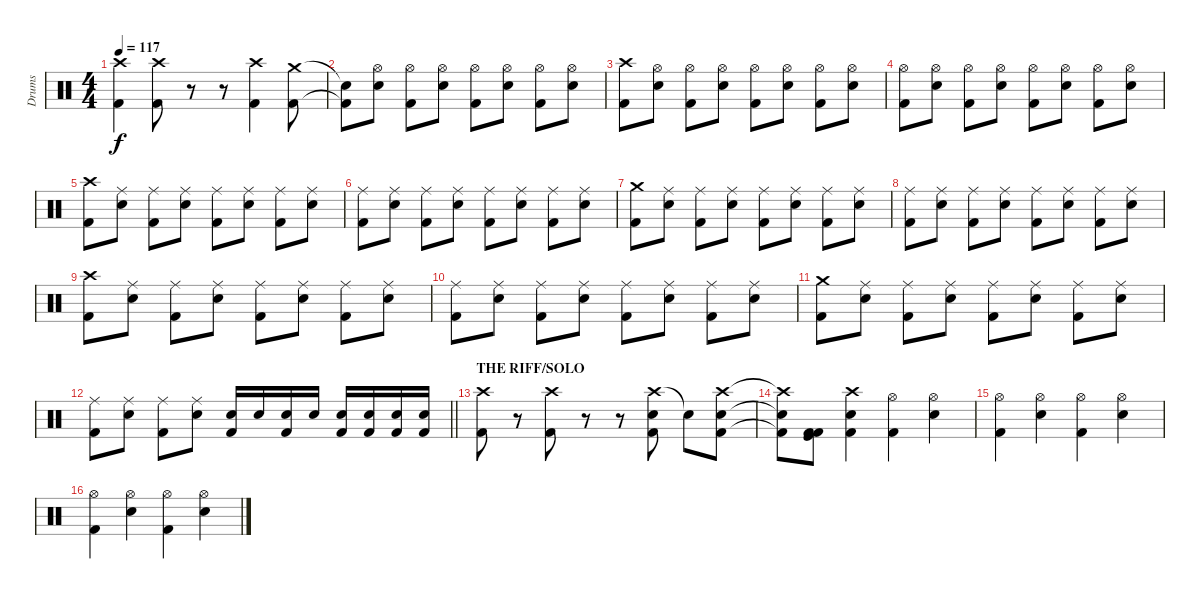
\track ("Drums" "Drums") {instrument percussion}
\staff {score}
\articulation defaults
\ts (4 4)
\tempo 117
\clef neutral
\ks c
("Crash high (hit)" "Kick (hit) 2").4{dy f} ("Crash high (hit)" "Kick (hit) 2").8 r.8 r.8 ("Crash high (hit)" "Kick (hit) 2").4 ("Crash medium (hit)" "Kick (hit) 2").8 |
("Snare (hit)"{t} "Kick (hit) 2"{t}).8 ("Hi-Hat (open)" "Electric Snare (hit)").8 ("Hi-Hat (open)" "Kick (hit) 2").8 ("Hi-Hat (open)" "Electric Snare (hit)").8 ("Hi-Hat (open)" "Kick (hit) 2").8 ("Hi-Hat (open)" "Electric Snare (hit)").8 ("Hi-Hat (open)" "Kick (hit) 2").8 ("Hi-Hat (open)" "Electric Snare (hit)").8 |
("Crash high (hit)" "Kick (hit) 2").8 ("Hi-Hat (open)" "Electric Snare (hit)").8 ("Hi-Hat (open)" "Kick (hit) 2").8 ("Hi-Hat (open)" "Electric Snare (hit)").8 ("Hi-Hat (open)" "Kick (hit) 2").8 ("Hi-Hat (open)" "Electric Snare (hit)").8 ("Hi-Hat (open)" "Kick (hit) 2").8 ("Hi-Hat (open)" "Electric Snare (hit)").8 |
("Hi-Hat (open)" "Kick (hit) 2").8 ("Hi-Hat (open)" "Electric Snare (hit)").8 ("Hi-Hat (open)" "Kick (hit) 2").8 ("Hi-Hat (open)" "Electric Snare (hit)").8 ("Hi-Hat (open)" "Kick (hit) 2").8 ("Hi-Hat (open)" "Electric Snare (hit)").8 ("Hi-Hat (open)" "Kick (hit) 2").8 ("Hi-Hat (open)" "Electric Snare (hit)").8 |
("Crash high (hit)" "Kick (hit) 2").8 ("Ride (middle)" "Electric Snare (hit)").8 ("Ride (middle)" "Kick (hit) 2").8 ("Ride (middle)" "Electric Snare (hit)").8 ("Ride (middle)" "Kick (hit) 2").8 ("Ride (middle)" "Electric Snare (hit)").8 ("Ride (middle)" "Kick (hit) 2").8 ("Ride (middle)" "Electric Snare (hit)").8 |
("Ride (middle)" "Kick (hit) 2").8 ("Ride (middle)" "Electric Snare (hit)").8 ("Ride (middle)" "Kick (hit) 2").8 ("Ride (middle)" "Electric Snare (hit)").8 ("Ride (middle)" "Kick (hit) 2").8 ("Ride (middle)" "Electric Snare (hit)").8 ("Ride (middle)" "Kick (hit) 2").8 ("Ride (middle)" "Electric Snare (hit)").8 |
("Crash medium (hit)" "Kick (hit) 2").8 ("Ride (middle)" "Electric Snare (hit)").8 ("Ride (middle)" "Kick (hit) 2").8 ("Ride (middle)" "Electric Snare (hit)").8 ("Ride (middle)" "Kick (hit) 2").8 ("Ride (middle)" "Electric Snare (hit)").8 ("Ride (middle)" "Kick (hit) 2").8 ("Ride (middle)" "Electric Snare (hit)").8 |
("Ride (middle)" "Kick (hit) 2").8 ("Ride (middle)" "Electric Snare (hit)").8 ("Ride (middle)" "Kick (hit) 2").8 ("Ride (middle)" "Electric Snare (hit)").8 ("Ride (middle)" "Kick (hit) 2").8 ("Ride (middle)" "Electric Snare (hit)").8 ("Ride (middle)" "Kick (hit) 2").8 ("Ride (middle)" "Electric Snare (hit)").8 |
("Crash high (hit)" "Kick (hit) 2").8 ("Ride (middle)" "Electric Snare (hit)").8 ("Ride (middle)" "Kick (hit) 2").8 ("Ride (middle)" "Electric Snare (hit)").8 ("Ride (middle)" "Kick (hit) 2").8 ("Ride (middle)" "Electric Snare (hit)").8 ("Ride (middle)" "Kick (hit) 2").8 ("Ride (middle)" "Electric Snare (hit)").8 |
("Ride (middle)" "Kick (hit) 2").8 ("Ride (middle)" "Electric Snare (hit)").8 ("Ride (middle)" "Kick (hit) 2").8 ("Ride (middle)" "Electric Snare (hit)").8 ("Ride (middle)" "Kick (hit) 2").8 ("Ride (middle)" "Electric Snare (hit)").8 ("Ride (middle)" "Kick (hit) 2").8 ("Ride (middle)" "Electric Snare (hit)").8 |
("Crash medium (hit)" "Kick (hit) 2").8 ("Ride (middle)" "Electric Snare (hit)").8 ("Ride (middle)" "Kick (hit) 2").8 ("Ride (middle)" "Electric Snare (hit)").8 ("Ride (middle)" "Kick (hit) 2").8 ("Ride (middle)" "Electric Snare (hit)").8 ("Ride (middle)" "Kick (hit) 2").8 ("Ride (middle)" "Electric Snare (hit)").8 |
\barLineRight lightlight
("Ride (middle)" "Kick (hit) 2").8 ("Ride (middle)" "Electric Snare (hit)").8 ("Ride (middle)" "Kick (hit) 2").8 ("Ride (middle)" "Electric Snare (hit)").8 ("Electric Snare (hit)" "Kick (hit) 2").16 "Electric Snare (hit)".16 ("Electric Snare (hit)" "Kick (hit) 2").16 "Electric Snare (hit)".16 ("Electric Snare (hit)" "Kick (hit) 2").16 ("Electric Snare (hit)" "Kick (hit) 2").16 ("Electric Snare (hit)" "Kick (hit) 2").16 ("Electric Snare (hit)" "Kick (hit) 2").16 |
\section ("" "THE RIFF/SOLO")
("Crash high (hit)" "Kick (hit) 2").8 r.8 ("Crash high (hit)" "Kick (hit) 2").8 r.8 r.8 ("Crash high (hit)" "Electric Snare (hit)" "Kick (hit) 2").8 "Snare (hit)"{t}.8 ("Crash high (hit)" "Electric Snare (hit)" "Kick (hit) 2").8 |
("Crash high (hit)"{t} "Electric Snare (hit)"{t} "Kick (hit) 2"{t}).8 ("Kick (hit) 2" "Kick (hit)" "Kick (hit) 2").8 ("Crash high (hit)" "Electric Snare (hit)" "Kick (hit) 2").4 ("Hi-Hat (open)" "Kick (hit) 2").4 ("Hi-Hat (open)" "Electric Snare (hit)").4 |
("Hi-Hat (open)" "Kick (hit) 2").4 ("Hi-Hat (open)" "Electric Snare (hit)").4 ("Hi-Hat (open)" "Kick (hit) 2").4 ("Hi-Hat (open)" "Electric Snare (hit)").4 |
("Hi-Hat (open)" "Kick (hit) 2").4 ("Hi-Hat (open)" "Electric Snare (hit)").4 ("Hi-Hat (open)" "Kick (hit) 2").4 ("Hi-Hat (open)" "Electric Snare (hit)").4
